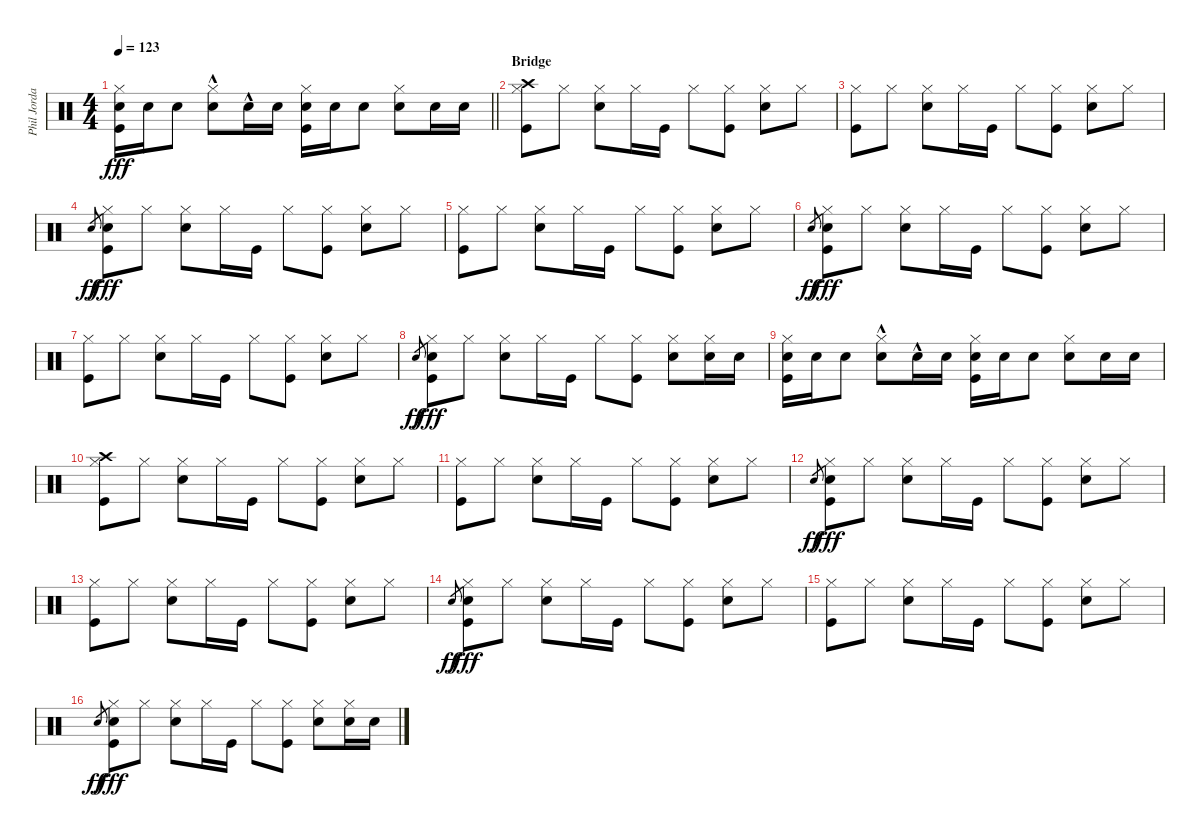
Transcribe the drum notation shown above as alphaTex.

\track ("Phil Jordan" "Phil Jorda") {instrument percussion}
\staff {score}
\articulation defaults
\ts (4 4)
\tempo 123
\clef neutral
\barLineRight lightlight
\ks c
("Hi-Hat (closed)" "Snare (hit) 2" "Kick (hit)").16{dy fff} "Snare (hit) 2".16 "Snare (hit) 2".8 ("Hi-Hat (closed)" "Snare (hit) 2"{hac}).8 "Snare (hit) 2"{hac}.16 "Snare (hit) 2".16 ("Hi-Hat (closed)" "Snare (hit) 2" "Kick (hit)").16 "Snare (hit) 2".16 "Snare (hit) 2".8 ("Hi-Hat (closed)" "Snare (hit) 2").8 "Snare (hit) 2".16 "Snare (hit) 2".16 |
\section ("" "Bridge")
("Crash high (hit)" "Hi-Hat (closed)" "Kick (hit)").8 "Hi-Hat (closed)".8 ("Hi-Hat (closed)" "Snare (hit) 2").8 "Hi-Hat (closed)".16 "Kick (hit)".16 "Hi-Hat (closed)".8 ("Hi-Hat (closed)" "Kick (hit)").8 ("Hi-Hat (closed)" "Snare (hit) 2").8 "Hi-Hat (closed)".8 |
("Hi-Hat (closed)" "Kick (hit)").8 "Hi-Hat (closed)".8 ("Hi-Hat (closed)" "Snare (hit) 2").8 "Hi-Hat (closed)".16 "Kick (hit)".16 "Hi-Hat (closed)".8 ("Hi-Hat (closed)" "Kick (hit)").8 ("Hi-Hat (closed)" "Snare (hit) 2").8 "Hi-Hat (closed)".8 |
"Snare (hit) 2".8{gr dy ff} ("Hi-Hat (closed)" "Snare (hit) 2" "Kick (hit)").8{dy fff} "Hi-Hat (closed)".8 ("Hi-Hat (closed)" "Snare (hit) 2").8 "Hi-Hat (closed)".16 "Kick (hit)".16 "Hi-Hat (closed)".8 ("Hi-Hat (closed)" "Kick (hit)").8 ("Hi-Hat (closed)" "Snare (hit) 2").8 "Hi-Hat (closed)".8 |
("Hi-Hat (closed)" "Kick (hit)").8 "Hi-Hat (closed)".8 ("Hi-Hat (closed)" "Snare (hit) 2").8 "Hi-Hat (closed)".16 "Kick (hit)".16 "Hi-Hat (closed)".8 ("Hi-Hat (closed)" "Kick (hit)").8 ("Hi-Hat (closed)" "Snare (hit) 2").8 "Hi-Hat (closed)".8 |
"Snare (hit) 2".8{gr dy ff} ("Hi-Hat (closed)" "Snare (hit) 2" "Kick (hit)").8{dy fff} "Hi-Hat (closed)".8 ("Hi-Hat (closed)" "Snare (hit) 2").8 "Hi-Hat (closed)".16 "Kick (hit)".16 "Hi-Hat (closed)".8 ("Hi-Hat (closed)" "Kick (hit)").8 ("Hi-Hat (closed)" "Snare (hit) 2").8 "Hi-Hat (closed)".8 |
("Hi-Hat (closed)" "Kick (hit)").8 "Hi-Hat (closed)".8 ("Hi-Hat (closed)" "Snare (hit) 2").8 "Hi-Hat (closed)".16 "Kick (hit)".16 "Hi-Hat (closed)".8 ("Hi-Hat (closed)" "Kick (hit)").8 ("Hi-Hat (closed)" "Snare (hit) 2").8 "Hi-Hat (closed)".8 |
"Snare (hit) 2".8{gr dy ff} ("Hi-Hat (closed)" "Snare (hit) 2" "Kick (hit)").8{dy fff} "Hi-Hat (closed)".8 ("Hi-Hat (closed)" "Snare (hit) 2").8 "Hi-Hat (closed)".16 "Kick (hit)".16 "Hi-Hat (closed)".8 ("Hi-Hat (closed)" "Kick (hit)").8 ("Hi-Hat (closed)" "Snare (hit) 2").8 ("Hi-Hat (closed)" "Snare (hit) 2").16 "Snare (hit) 2".16 |
("Hi-Hat (closed)" "Snare (hit) 2" "Kick (hit)").16 "Snare (hit) 2".16 "Snare (hit) 2".8 ("Hi-Hat (closed)" "Snare (hit) 2"{hac}).8 "Snare (hit) 2"{hac}.16 "Snare (hit) 2".16 ("Hi-Hat (closed)" "Snare (hit) 2" "Kick (hit)").16 "Snare (hit) 2".16 "Snare (hit) 2".8 ("Hi-Hat (closed)" "Snare (hit) 2").8 "Snare (hit) 2".16 "Snare (hit) 2".16 |
("Crash high (hit)" "Hi-Hat (closed)" "Kick (hit)").8 "Hi-Hat (closed)".8 ("Hi-Hat (closed)" "Snare (hit) 2").8 "Hi-Hat (closed)".16 "Kick (hit)".16 "Hi-Hat (closed)".8 ("Hi-Hat (closed)" "Kick (hit)").8 ("Hi-Hat (closed)" "Snare (hit) 2").8 "Hi-Hat (closed)".8 |
("Hi-Hat (closed)" "Kick (hit)").8 "Hi-Hat (closed)".8 ("Hi-Hat (closed)" "Snare (hit) 2").8 "Hi-Hat (closed)".16 "Kick (hit)".16 "Hi-Hat (closed)".8 ("Hi-Hat (closed)" "Kick (hit)").8 ("Hi-Hat (closed)" "Snare (hit) 2").8 "Hi-Hat (closed)".8 |
"Snare (hit) 2".8{gr dy ff} ("Hi-Hat (closed)" "Snare (hit) 2" "Kick (hit)").8{dy fff} "Hi-Hat (closed)".8 ("Hi-Hat (closed)" "Snare (hit) 2").8 "Hi-Hat (closed)".16 "Kick (hit)".16 "Hi-Hat (closed)".8 ("Hi-Hat (closed)" "Kick (hit)").8 ("Hi-Hat (closed)" "Snare (hit) 2").8 "Hi-Hat (closed)".8 |
("Hi-Hat (closed)" "Kick (hit)").8 "Hi-Hat (closed)".8 ("Hi-Hat (closed)" "Snare (hit) 2").8 "Hi-Hat (closed)".16 "Kick (hit)".16 "Hi-Hat (closed)".8 ("Hi-Hat (closed)" "Kick (hit)").8 ("Hi-Hat (closed)" "Snare (hit) 2").8 "Hi-Hat (closed)".8 |
"Snare (hit) 2".8{gr dy ff} ("Hi-Hat (closed)" "Snare (hit) 2" "Kick (hit)").8{dy fff} "Hi-Hat (closed)".8 ("Hi-Hat (closed)" "Snare (hit) 2").8 "Hi-Hat (closed)".16 "Kick (hit)".16 "Hi-Hat (closed)".8 ("Hi-Hat (closed)" "Kick (hit)").8 ("Hi-Hat (closed)" "Snare (hit) 2").8 "Hi-Hat (closed)".8 |
("Hi-Hat (closed)" "Kick (hit)").8 "Hi-Hat (closed)".8 ("Hi-Hat (closed)" "Snare (hit) 2").8 "Hi-Hat (closed)".16 "Kick (hit)".16 "Hi-Hat (closed)".8 ("Hi-Hat (closed)" "Kick (hit)").8 ("Hi-Hat (closed)" "Snare (hit) 2").8 "Hi-Hat (closed)".8 |
"Snare (hit) 2".8{gr dy ff} ("Hi-Hat (closed)" "Snare (hit) 2" "Kick (hit)").8{dy fff} "Hi-Hat (closed)".8 ("Hi-Hat (closed)" "Snare (hit) 2").8 "Hi-Hat (closed)".16 "Kick (hit)".16 "Hi-Hat (closed)".8 ("Hi-Hat (closed)" "Kick (hit)").8 ("Hi-Hat (closed)" "Snare (hit) 2").8 ("Hi-Hat (closed)" "Snare (hit) 2").16 "Snare (hit) 2".16
